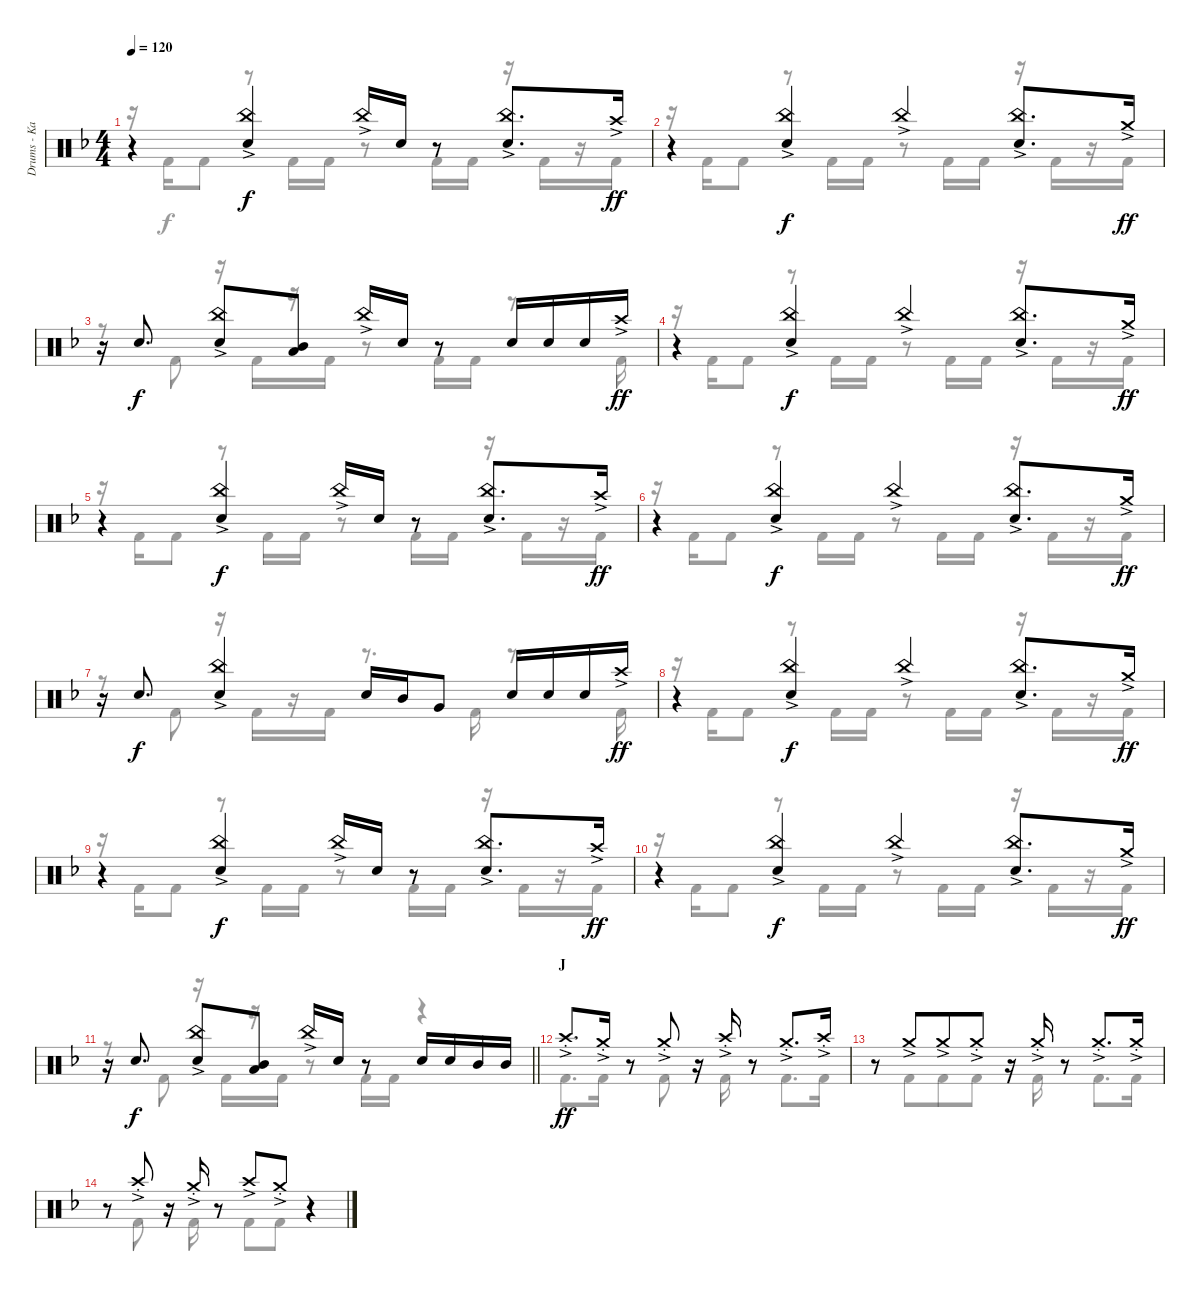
\track ("Drums - Kai" "Drums - Ka") {instrument percussion}
\staff {score}
\articulation defaults
\voice
\ts (4 4)
\tempo 120
\clef neutral
\ks f
r.4{dy ff} ("China (hit)"{ac} "Electric Snare (hit)").4{dy f} "China (hit)"{ac}.16 "Electric Snare (hit)".16 r.8 ("China (hit)"{ac} "Electric Snare (hit)").8{d} "Crash high (hit)"{ac}.16{dy ff} |
r.4 ("China (hit)"{ac} "Electric Snare (hit)").4{dy f} "China (hit)"{ac}.4 ("China (hit)"{ac} "Electric Snare (hit)").8{d} "Crash medium (hit)"{ac}.16{dy ff} |
r.16 "Electric Snare (hit)".8{d dy f} ("China (hit)"{ac} "Electric Snare (hit)").8 ("Mid Tom (hit)" "Low Tom (hit)").8 "China (hit)"{ac}.16 "Electric Snare (hit)".16 r.8 "Electric Snare (hit)".16 "Electric Snare (hit)".16 "Electric Snare (hit)".16 "Crash high (hit)"{ac}.16{dy ff} |
r.4 ("China (hit)"{ac} "Electric Snare (hit)").4{dy f} "China (hit)"{ac}.4 ("China (hit)"{ac} "Electric Snare (hit)").8{d} "Crash medium (hit)"{ac}.16{dy ff} |
r.4 ("China (hit)"{ac} "Electric Snare (hit)").4{dy f} "China (hit)"{ac}.16 "Electric Snare (hit)".16 r.8 ("China (hit)"{ac} "Electric Snare (hit)").8{d} "Crash high (hit)"{ac}.16{dy ff} |
r.4 ("China (hit)"{ac} "Electric Snare (hit)").4{dy f} "China (hit)"{ac}.4 ("China (hit)"{ac} "Electric Snare (hit)").8{d} "Crash medium (hit)"{ac}.16{dy ff} |
r.16 "Electric Snare (hit)".8{d dy f} ("China (hit)"{ac} "Electric Snare (hit)").4 "Electric Snare (hit)".16 "Mid Tom (hit)".16 "Very Low Tom (hit)".8 "Electric Snare (hit)".16 "Electric Snare (hit)".16 "Electric Snare (hit)".16 "Crash high (hit)"{ac}.16{dy ff} |
r.4 ("China (hit)"{ac} "Electric Snare (hit)").4{dy f} "China (hit)"{ac}.4 ("China (hit)"{ac} "Electric Snare (hit)").8{d} "Crash medium (hit)"{ac}.16{dy ff} |
r.4 ("China (hit)"{ac} "Electric Snare (hit)").4{dy f} "China (hit)"{ac}.16 "Electric Snare (hit)".16 r.8 ("China (hit)"{ac} "Electric Snare (hit)").8{d} "Crash high (hit)"{ac}.16{dy ff} |
r.4 ("China (hit)"{ac} "Electric Snare (hit)").4{dy f} "China (hit)"{ac}.4 ("China (hit)"{ac} "Electric Snare (hit)").8{d} "Crash medium (hit)"{ac}.16{dy ff} |
\barLineRight lightlight
r.16 "Electric Snare (hit)".8{d dy f} ("China (hit)"{ac} "Electric Snare (hit)").8 ("Mid Tom (hit)" "Low Tom (hit)").8 "China (hit)"{ac}.16 "Electric Snare (hit)".16 r.8 "Electric Snare (hit)".16 "Electric Snare (hit)".16 "Mid Tom (hit)".16 "Mid Tom (hit)".16 |
\section ("" "J")
"Crash high (hit)"{ac st}.8{d dy ff} "Crash medium (hit)"{ac st}.16 r.8 "Crash medium (hit)"{ac st}.8 r.16 "Crash high (hit)"{ac st}.16 r.8 "Crash medium (hit)"{ac st}.8{d} "Crash high (hit)"{ac st}.16 |
r.8 "Crash medium (hit)"{ac}.8{beam merge} "Crash medium (hit)"{ac}.8 "Crash medium (hit)"{ac st}.8 r.16 "Crash medium (hit)"{ac st}.16 r.8 "Crash medium (hit)"{ac st}.8{d} "Crash medium (hit)"{ac st}.16 |
r.8 "Crash high (hit)"{ac st}.8 r.16 "Crash medium (hit)"{ac st}.16 r.8 "Crash high (hit)"{ac}.8 "Crash medium (hit)"{ac st}.8 r.4
\voice
\clef neutral
\ottava regular
\simile none
\ks f
r.16{dy f} "Kick (hit) 2".16 "Kick (hit) 2".8 r.8 "Kick (hit) 2".16 "Kick (hit) 2".16 r.8 "Kick (hit) 2".16 "Kick (hit) 2".16 r.16 "Kick (hit) 2".16 r.16 "Kick (hit) 2".16 |
r.16 "Kick (hit) 2".16 "Kick (hit) 2".8 r.8 "Kick (hit) 2".16 "Kick (hit) 2".16 r.8 "Kick (hit) 2".16 "Kick (hit) 2".16 r.16 "Kick (hit) 2".16 r.16 "Kick (hit) 2".16 |
r.8 "Kick (hit) 2".8 r.16 "Kick (hit) 2".16 r.16 "Kick (hit) 2".16 r.8 "Kick (hit) 2".16 "Kick (hit) 2".16 r.8{d} "Kick (hit) 2".16 |
r.16 "Kick (hit) 2".16 "Kick (hit) 2".8 r.8 "Kick (hit) 2".16 "Kick (hit) 2".16 r.8 "Kick (hit) 2".16 "Kick (hit) 2".16 r.16 "Kick (hit) 2".16 r.16 "Kick (hit) 2".16 |
r.16 "Kick (hit) 2".16 "Kick (hit) 2".8 r.8 "Kick (hit) 2".16 "Kick (hit) 2".16 r.8 "Kick (hit) 2".16 "Kick (hit) 2".16 r.16 "Kick (hit) 2".16 r.16 "Kick (hit) 2".16 |
r.16 "Kick (hit) 2".16 "Kick (hit) 2".8 r.8 "Kick (hit) 2".16 "Kick (hit) 2".16 r.8 "Kick (hit) 2".16 "Kick (hit) 2".16 r.16 "Kick (hit) 2".16 r.16 "Kick (hit) 2".16 |
r.8 "Kick (hit) 2".8 r.16 "Kick (hit) 2".16 r.16 "Kick (hit) 2".16 r.8{d} "Kick (hit) 2".16 r.8{d} "Kick (hit) 2".16 |
r.16 "Kick (hit) 2".16 "Kick (hit) 2".8 r.8 "Kick (hit) 2".16 "Kick (hit) 2".16 r.8 "Kick (hit) 2".16 "Kick (hit) 2".16 r.16 "Kick (hit) 2".16 r.16 "Kick (hit) 2".16 |
r.16 "Kick (hit) 2".16 "Kick (hit) 2".8 r.8 "Kick (hit) 2".16 "Kick (hit) 2".16 r.8 "Kick (hit) 2".16 "Kick (hit) 2".16 r.16 "Kick (hit) 2".16 r.16 "Kick (hit) 2".16 |
r.16 "Kick (hit) 2".16 "Kick (hit) 2".8 r.8 "Kick (hit) 2".16 "Kick (hit) 2".16 r.8 "Kick (hit) 2".16 "Kick (hit) 2".16 r.16 "Kick (hit) 2".16 r.16 "Kick (hit) 2".16 |
\barLineRight lightlight
r.8 "Kick (hit) 2".8 r.16 "Kick (hit) 2".16 r.16 "Kick (hit) 2".16 r.8 "Kick (hit) 2".16 "Kick (hit) 2".16 r.4 |
"Kick (hit) 2".8{d} "Kick (hit) 2".16 r.8 "Kick (hit) 2".8 r.16 "Kick (hit) 2".16 r.8 "Kick (hit) 2".8{d} "Kick (hit) 2".16 |
r.8 "Kick (hit) 2".8{beam merge} "Kick (hit) 2".8 "Kick (hit) 2".8 r.16 "Kick (hit) 2".16 r.8 "Kick (hit) 2".8{d} "Kick (hit) 2".16 |
r.8 "Kick (hit) 2".8 r.16 "Kick (hit) 2".16 r.8 "Kick (hit) 2".8 "Kick (hit) 2".8 r.4
